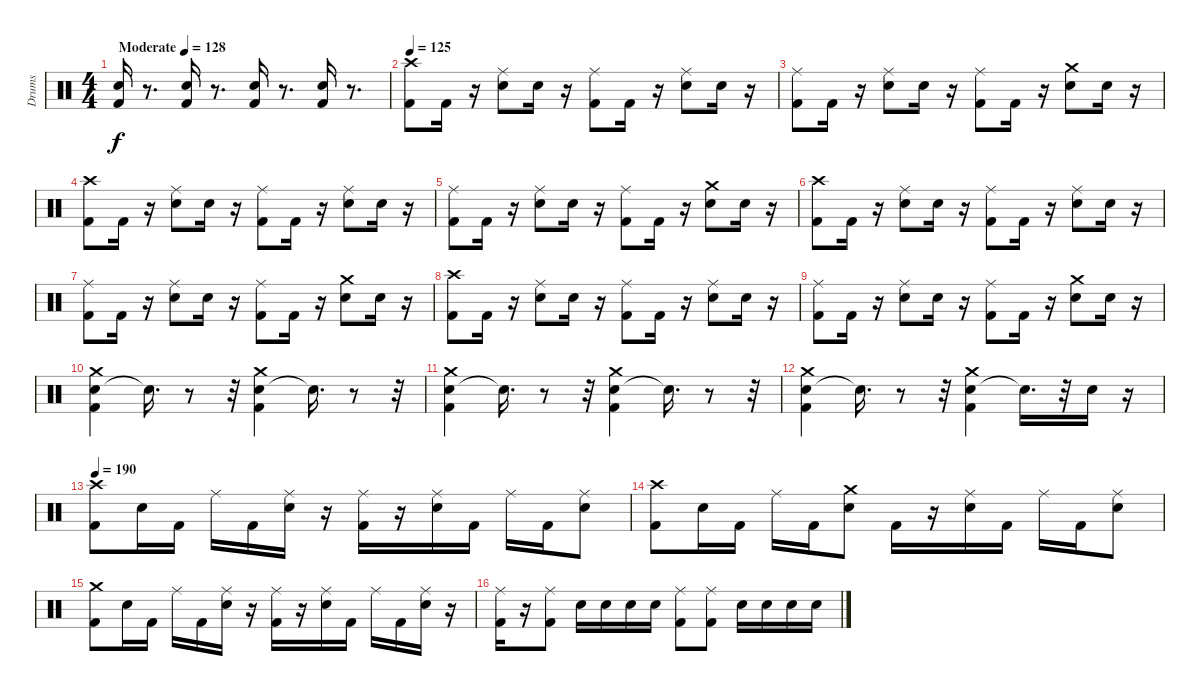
\track ("Drums" "Drums") {instrument percussion}
\staff {score}
\articulation defaults
\ts (4 4)
\tempo (128 "Moderate")
\clef neutral
\ks c
("Electric Snare (hit)" "Kick (hit) 2").16{dy f} r.8{d} ("Electric Snare (hit)" "Kick (hit) 2").16 r.8{d} ("Electric Snare (hit)" "Kick (hit) 2").16 r.8{d} ("Electric Snare (hit)" "Kick (hit) 2").16 r.8{d} |
\tempo 125
("Kick (hit) 2" "Crash high (hit)").8 "Kick (hit) 2".16 r.16 ("Electric Snare (hit)" "Ride (middle)").8 "Electric Snare (hit)".16 r.16 ("Kick (hit) 2" "Ride (middle)").8 "Kick (hit) 2".16 r.16 ("Electric Snare (hit)" "Ride (middle)").8 "Electric Snare (hit)".16 r.16 |
("Kick (hit) 2" "Ride (middle)").8 "Kick (hit) 2".16 r.16 ("Electric Snare (hit)" "Ride (middle)").8 "Electric Snare (hit)".16 r.16 ("Kick (hit) 2" "Ride (middle)").8 "Kick (hit) 2".16 r.16 ("Crash medium (hit)" "Electric Snare (hit)").8 "Electric Snare (hit)".16 r.16 |
("Kick (hit) 2" "Crash high (hit)").8 "Kick (hit) 2".16 r.16 ("Electric Snare (hit)" "Ride (middle)").8 "Electric Snare (hit)".16 r.16 ("Kick (hit) 2" "Ride (middle)").8 "Kick (hit) 2".16 r.16 ("Electric Snare (hit)" "Ride (middle)").8 "Electric Snare (hit)".16 r.16 |
("Kick (hit) 2" "Ride (middle)").8 "Kick (hit) 2".16 r.16 ("Electric Snare (hit)" "Ride (middle)").8 "Electric Snare (hit)".16 r.16 ("Kick (hit) 2" "Ride (middle)").8 "Kick (hit) 2".16 r.16 ("Crash medium (hit)" "Electric Snare (hit)").8 "Electric Snare (hit)".16 r.16 |
("Kick (hit) 2" "Crash high (hit)").8 "Kick (hit) 2".16 r.16 ("Electric Snare (hit)" "Ride (middle)").8 "Electric Snare (hit)".16 r.16 ("Kick (hit) 2" "Ride (middle)").8 "Kick (hit) 2".16 r.16 ("Electric Snare (hit)" "Ride (middle)").8 "Electric Snare (hit)".16 r.16 |
("Kick (hit) 2" "Ride (middle)").8 "Kick (hit) 2".16 r.16 ("Electric Snare (hit)" "Ride (middle)").8 "Electric Snare (hit)".16 r.16 ("Kick (hit) 2" "Ride (middle)").8 "Kick (hit) 2".16 r.16 ("Crash medium (hit)" "Electric Snare (hit)").8 "Electric Snare (hit)".16 r.16 |
("Kick (hit) 2" "Crash high (hit)").8 "Kick (hit) 2".16 r.16 ("Electric Snare (hit)" "Ride (middle)").8 "Electric Snare (hit)".16 r.16 ("Kick (hit) 2" "Ride (middle)").8 "Kick (hit) 2".16 r.16 ("Electric Snare (hit)" "Ride (middle)").8 "Electric Snare (hit)".16 r.16 |
("Kick (hit) 2" "Ride (middle)").8 "Kick (hit) 2".16 r.16 ("Electric Snare (hit)" "Ride (middle)").8 "Electric Snare (hit)".16 r.16 ("Kick (hit) 2" "Ride (middle)").8 "Kick (hit) 2".16 r.16 ("Electric Snare (hit)" "Crash medium (hit)").8 "Electric Snare (hit)".16 r.16 |
("Electric Snare (hit)" "Kick (hit) 2" "Crash medium (hit)").4 "Snare (hit)"{t}.16{d} r.8 r.32 ("Electric Snare (hit)" "Kick (hit) 2" "Crash medium (hit)").4 "Snare (hit)"{t}.16{d} r.8 r.32 |
("Electric Snare (hit)" "Kick (hit) 2" "Crash medium (hit)").4 "Snare (hit)"{t}.16{d} r.8 r.32 ("Electric Snare (hit)" "Kick (hit) 2" "Crash medium (hit)").4 "Snare (hit)"{t}.16{d} r.8 r.32 |
("Electric Snare (hit)" "Kick (hit) 2" "Crash medium (hit)").4 "Snare (hit)"{t}.16{d} r.8 r.32 ("Electric Snare (hit)" "Kick (hit) 2" "Crash medium (hit)").4 "Snare (hit)"{t}.16{d} r.32 "Electric Snare (hit)".16 r.16 |
\tempo 190
("Kick (hit) 2" "Crash high (hit)").8 "Electric Snare (hit)".16 "Kick (hit) 2".16 "Ride (middle)".16 "Kick (hit) 2".16 ("Electric Snare (hit)" "Ride (middle)").16 r.16 ("Kick (hit) 2" "Ride (middle)").16 r.16 ("Electric Snare (hit)" "Ride (middle)").16 "Kick (hit) 2".16 "Ride (middle)".16 "Kick (hit) 2".16 ("Electric Snare (hit)" "Ride (middle)").8 |
("Kick (hit) 2" "Crash high (hit)").8 "Electric Snare (hit)".16 "Kick (hit) 2".16 "Ride (middle)".16 "Kick (hit) 2".16 ("Electric Snare (hit)" "Crash medium (hit)").8 "Kick (hit) 2".16 r.16 ("Electric Snare (hit)" "Ride (middle)").16 "Kick (hit) 2".16 "Ride (middle)".16 "Kick (hit) 2".16 ("Electric Snare (hit)" "Ride (middle)").8 |
("Kick (hit) 2" "Crash medium (hit)").8 "Electric Snare (hit)".16 "Kick (hit) 2".16 "Ride (middle)".16 "Kick (hit) 2".16 ("Electric Snare (hit)" "Ride (middle)").16 r.16 ("Kick (hit) 2" "Ride (middle)").16 r.16 ("Electric Snare (hit)" "Ride (middle)").16 "Kick (hit) 2".16 "Ride (middle)".16 "Kick (hit) 2".16 ("Electric Snare (hit)" "Ride (middle)").16 r.16 |
("Kick (hit) 2" "Ride (middle)").16 r.16 ("Kick (hit) 2" "Ride (middle)").8 "Electric Snare (hit)".16 "Electric Snare (hit)".16 "Electric Snare (hit)".16 "Electric Snare (hit)".16 ("Kick (hit) 2" "Ride (middle)").8 ("Kick (hit) 2" "Ride (middle)").8 "Electric Snare (hit)".16 "Electric Snare (hit)".16 "Electric Snare (hit)".16 "Electric Snare (hit)".16
